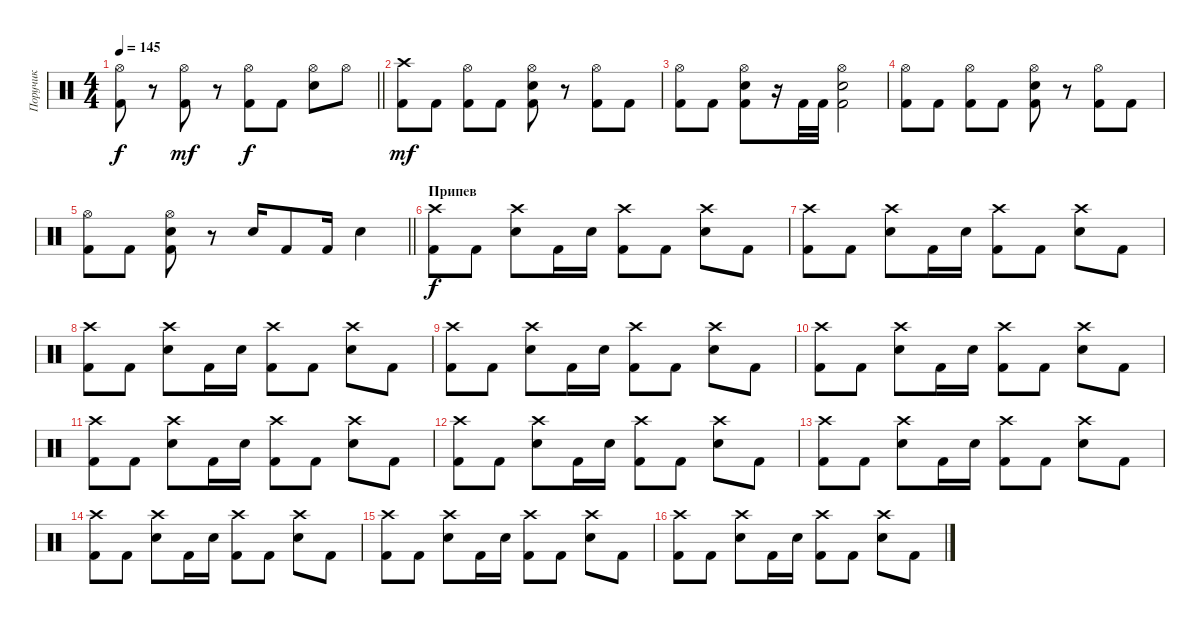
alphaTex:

\track ("Поручик" "Поручик") {instrument percussion}
\staff {score}
\articulation defaults
\ts (4 4)
\tempo 145
\clef neutral
\barLineRight lightlight
\ks c
("Hi-Hat (open)" "Kick (hit) 2").8{dy f} r.8 ("Hi-Hat (open)" "Kick (hit) 2").8{dy mf} r.8 ("Hi-Hat (open)" "Kick (hit) 2").8{dy f} "Kick (hit) 2".8 ("Hi-Hat (open)" "Electric Snare (hit)").8 "Hi-Hat (open)".8 |
("Crash high (hit)" "Kick (hit) 2").8{dy mf} "Kick (hit) 2".8 ("Hi-Hat (open)" "Kick (hit) 2").8 "Kick (hit) 2".8 ("Hi-Hat (open)" "Electric Snare (hit)" "Kick (hit) 2").8 r.8 ("Hi-Hat (open)" "Kick (hit) 2").8 "Kick (hit) 2".8 |
("Hi-Hat (open)" "Kick (hit) 2").8 "Kick (hit) 2".8 ("Hi-Hat (open)" "Electric Snare (hit)" "Kick (hit) 2").8 r.16 "Kick (hit) 2".32 "Kick (hit) 2".32 ("Hi-Hat (open)" "Electric Snare (hit)" "Kick (hit) 2").2 |
("Hi-Hat (open)" "Kick (hit) 2").8 "Kick (hit) 2".8 ("Hi-Hat (open)" "Kick (hit) 2").8 "Kick (hit) 2".8 ("Hi-Hat (open)" "Electric Snare (hit)" "Kick (hit) 2").8 r.8 ("Hi-Hat (open)" "Kick (hit) 2").8 "Kick (hit) 2".8 |
\barLineRight lightlight
("Hi-Hat (open)" "Kick (hit) 2").8 "Kick (hit) 2".8 ("Hi-Hat (open)" "Electric Snare (hit)" "Kick (hit) 2").8 r.8 "Electric Snare (hit)".16 "Kick (hit) 2".8 "Kick (hit) 2".16 "Electric Snare (hit)".4 |
\section ("" "Припев")
("Crash high (hit)" "Kick (hit) 2").8{dy f} "Kick (hit) 2".8 ("Crash high (hit)" "Electric Snare (hit)").8 "Kick (hit) 2".16 "Electric Snare (hit)".16 ("Crash high (hit)" "Kick (hit) 2").8 "Kick (hit) 2".8 ("Crash high (hit)" "Electric Snare (hit)").8 "Kick (hit) 2".8 |
("Crash high (hit)" "Kick (hit) 2").8 "Kick (hit) 2".8 ("Crash high (hit)" "Electric Snare (hit)").8 "Kick (hit) 2".16 "Electric Snare (hit)".16 ("Crash high (hit)" "Kick (hit) 2").8 "Kick (hit) 2".8 ("Crash high (hit)" "Electric Snare (hit)").8 "Kick (hit) 2".8 |
("Crash high (hit)" "Kick (hit) 2").8 "Kick (hit) 2".8 ("Crash high (hit)" "Electric Snare (hit)").8 "Kick (hit) 2".16 "Electric Snare (hit)".16 ("Crash high (hit)" "Kick (hit) 2").8 "Kick (hit) 2".8 ("Crash high (hit)" "Electric Snare (hit)").8 "Kick (hit) 2".8 |
("Crash high (hit)" "Kick (hit) 2").8 "Kick (hit) 2".8 ("Crash high (hit)" "Electric Snare (hit)").8 "Kick (hit) 2".16 "Electric Snare (hit)".16 ("Crash high (hit)" "Kick (hit) 2").8 "Kick (hit) 2".8 ("Crash high (hit)" "Electric Snare (hit)").8 "Kick (hit) 2".8 |
("Crash high (hit)" "Kick (hit) 2").8 "Kick (hit) 2".8 ("Crash high (hit)" "Electric Snare (hit)").8 "Kick (hit) 2".16 "Electric Snare (hit)".16 ("Crash high (hit)" "Kick (hit) 2").8 "Kick (hit) 2".8 ("Crash high (hit)" "Electric Snare (hit)").8 "Kick (hit) 2".8 |
("Crash high (hit)" "Kick (hit) 2").8 "Kick (hit) 2".8 ("Crash high (hit)" "Electric Snare (hit)").8 "Kick (hit) 2".16 "Electric Snare (hit)".16 ("Crash high (hit)" "Kick (hit) 2").8 "Kick (hit) 2".8 ("Crash high (hit)" "Electric Snare (hit)").8 "Kick (hit) 2".8 |
("Crash high (hit)" "Kick (hit) 2").8 "Kick (hit) 2".8 ("Crash high (hit)" "Electric Snare (hit)").8 "Kick (hit) 2".16 "Electric Snare (hit)".16 ("Crash high (hit)" "Kick (hit) 2").8 "Kick (hit) 2".8 ("Crash high (hit)" "Electric Snare (hit)").8 "Kick (hit) 2".8 |
("Crash high (hit)" "Kick (hit) 2").8 "Kick (hit) 2".8 ("Crash high (hit)" "Electric Snare (hit)").8 "Kick (hit) 2".16 "Electric Snare (hit)".16 ("Crash high (hit)" "Kick (hit) 2").8 "Kick (hit) 2".8 ("Crash high (hit)" "Electric Snare (hit)").8 "Kick (hit) 2".8 |
("Crash high (hit)" "Kick (hit) 2").8 "Kick (hit) 2".8 ("Crash high (hit)" "Electric Snare (hit)").8 "Kick (hit) 2".16 "Electric Snare (hit)".16 ("Crash high (hit)" "Kick (hit) 2").8 "Kick (hit) 2".8 ("Crash high (hit)" "Electric Snare (hit)").8 "Kick (hit) 2".8 |
("Crash high (hit)" "Kick (hit) 2").8 "Kick (hit) 2".8 ("Crash high (hit)" "Electric Snare (hit)").8 "Kick (hit) 2".16 "Electric Snare (hit)".16 ("Crash high (hit)" "Kick (hit) 2").8 "Kick (hit) 2".8 ("Crash high (hit)" "Electric Snare (hit)").8 "Kick (hit) 2".8 |
("Crash high (hit)" "Kick (hit) 2").8 "Kick (hit) 2".8 ("Crash high (hit)" "Electric Snare (hit)").8 "Kick (hit) 2".16 "Electric Snare (hit)".16 ("Crash high (hit)" "Kick (hit) 2").8 "Kick (hit) 2".8 ("Crash high (hit)" "Electric Snare (hit)").8 "Kick (hit) 2".8
